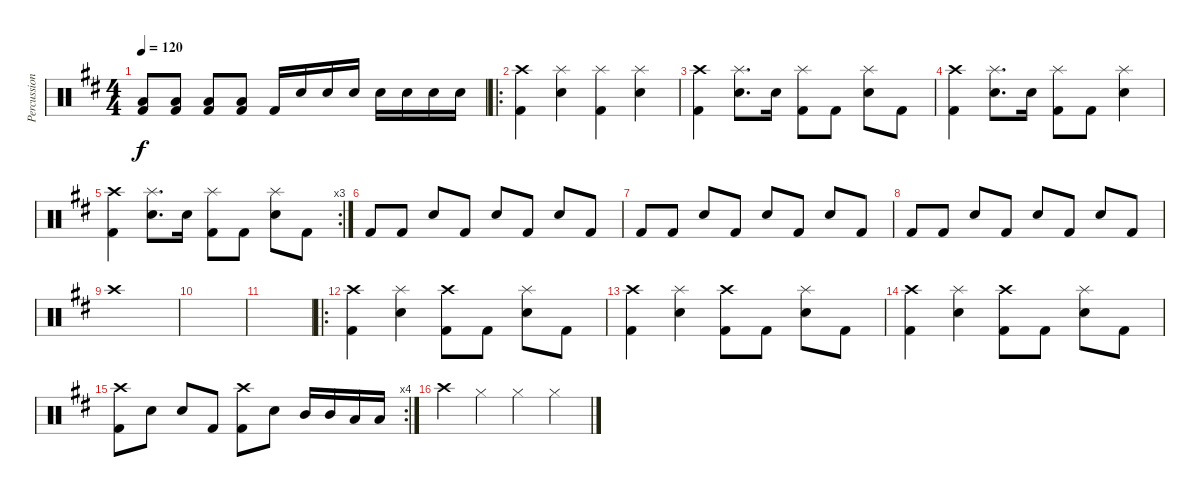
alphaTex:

\track ("Percussion" "Percussion") {instrument percussion}
\staff {score}
\articulation defaults
\ts (4 4)
\tempo 120
\clef neutral
\ks d
("Low Floor Tom (hit)" "Kick (hit) 2").8{dy f} ("Low Floor Tom (hit)" "Kick (hit) 2").8 ("Low Floor Tom (hit)" "Kick (hit) 2").8 ("Low Floor Tom (hit)" "Kick (hit) 2").8 "Kick (hit) 2".16 "Snare (hit) 2".16 "Snare (hit) 2".16 "Snare (hit) 2".16 "Snare (hit) 2".16 "Snare (hit) 2".16 "Snare (hit) 2".16 "Snare (hit) 2".16 |
\ro
("Crash high (hit)" "Kick (hit) 2").4 ("Splash (hit)" "Snare (hit) 2").4 ("Splash (hit)" "Kick (hit) 2").4 ("Splash (hit)" "Snare (hit) 2").4 |
("Crash high (hit)" "Kick (hit) 2").4 ("Splash (hit)" "Snare (hit) 2").8{d} "Snare (hit) 2".16 ("Splash (hit)" "Kick (hit) 2").8 "Kick (hit) 2".8 ("Splash (hit)" "Snare (hit) 2").8 "Kick (hit) 2".8 |
("Crash high (hit)" "Kick (hit) 2").4 ("Splash (hit)" "Snare (hit) 2").8{d} "Snare (hit) 2".16 ("Splash (hit)" "Kick (hit) 2").8 "Kick (hit) 2".8 ("Splash (hit)" "Snare (hit) 2").4 |
\rc 3
("Crash high (hit)" "Kick (hit) 2").4 ("Splash (hit)" "Snare (hit) 2").8{d} "Snare (hit) 2".16 ("Splash (hit)" "Kick (hit) 2").8 "Kick (hit) 2".8 ("Splash (hit)" "Snare (hit) 2").8 "Kick (hit) 2".8 |
"Kick (hit) 2".8 "Kick (hit) 2".8 "Snare (hit) 2".8 "Kick (hit) 2".8 "Snare (hit) 2".8 "Kick (hit) 2".8 "Snare (hit) 2".8 "Kick (hit) 2".8 |
"Kick (hit) 2".8 "Kick (hit) 2".8 "Snare (hit) 2".8 "Kick (hit) 2".8 "Snare (hit) 2".8 "Kick (hit) 2".8 "Snare (hit) 2".8 "Kick (hit) 2".8 |
"Kick (hit) 2".8 "Kick (hit) 2".8 "Snare (hit) 2".8 "Kick (hit) 2".8 "Snare (hit) 2".8 "Kick (hit) 2".8 "Snare (hit) 2".8 "Kick (hit) 2".8 |
"Crash high (hit)".1 |
|
|
\ro
("Crash high (hit)" "Kick (hit) 2").4 ("Splash (hit)" "Snare (hit) 2").4 ("Crash high (hit)" "Kick (hit) 2").8 "Kick (hit) 2".8 ("Splash (hit)" "Snare (hit) 2").8 "Kick (hit) 2".8 |
("Crash high (hit)" "Kick (hit) 2").4 ("Splash (hit)" "Snare (hit) 2").4 ("Crash high (hit)" "Kick (hit) 2").8 "Kick (hit) 2".8 ("Splash (hit)" "Snare (hit) 2").8 "Kick (hit) 2".8 |
("Crash high (hit)" "Kick (hit) 2").4 ("Splash (hit)" "Snare (hit) 2").4 ("Crash high (hit)" "Kick (hit) 2").8 "Kick (hit) 2".8 ("Splash (hit)" "Snare (hit) 2").8 "Kick (hit) 2".8 |
\rc 4
("Crash high (hit)" "Kick (hit) 2").8 "Snare (hit) 2".8 "Snare (hit) 2".8 "Kick (hit) 2".8 ("Crash high (hit)" "Kick (hit) 2").8 "Snare (hit) 2".8 "Mid Tom (hit)".16 "Mid Tom (hit)".16 "Low Tom (hit)".16 "Low Tom (hit)".16 |
"Crash high (hit)".4 "Hi-Hat (closed)".4 "Hi-Hat (closed)".4 "Hi-Hat (closed)".4
